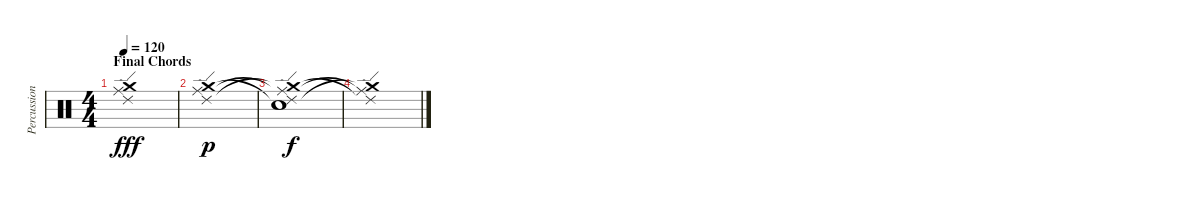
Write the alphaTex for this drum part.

\track ("Percussion" "Percussion") {instrument percussion}
\staff {score}
\articulation defaults
\ts (4 4)
\section ("" "Final Chords")
\tempo 120
\clef neutral
\ks c
("Ride (middle)" "Crash medium (hit)" "Ride (edge) 2").1{dy fff} |
("Ride (middle)" "Crash medium (hit)" "Ride (edge) 2").1{dy p} |
("Ride (middle)"{t} "Snare (hit)"{t} "Crash medium (hit)"{t} "Snare (hit)" "Ride (edge) 2").1{dy f} |
("Ride (middle)"{t} "Crash medium (hit)"{t} "Ride (edge) 2"{t}).1
